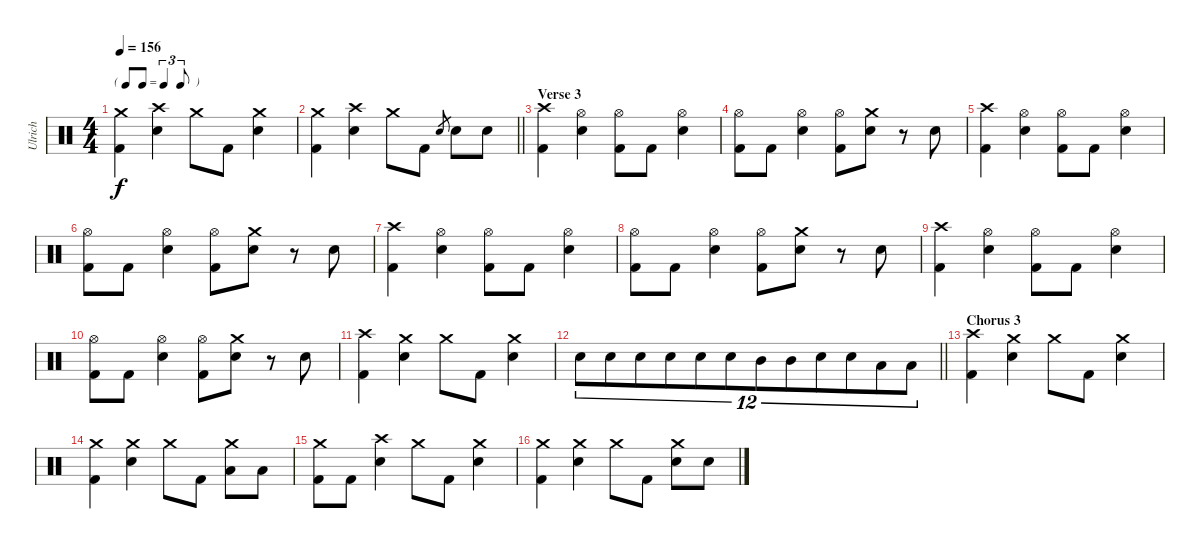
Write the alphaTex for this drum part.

\track ("Ulrich" "Ulrich") {instrument percussion}
\staff {score}
\articulation defaults
\ts (4 4)
\tf triplet8th
\tempo 156
\clef neutral
\ks c
("Crash medium (hit)" "Kick (hit) 2").4{dy f} ("Crash high (hit)" "Electric Snare (hit)").4 "Crash medium (hit)".8 "Kick (hit) 2".8 ("Crash medium (hit)" "Electric Snare (hit)").4 |
\barLineRight lightlight
("Crash medium (hit)" "Kick (hit) 2").4 ("Crash high (hit)" "Electric Snare (hit)").4 "Crash medium (hit)".8 "Kick (hit) 2".8 "Electric Snare (hit)".8{gr} "Electric Snare (hit)".8 "Electric Snare (hit)".8 |
\section ("" "Verse 3")
("Crash high (hit)" "Kick (hit) 2").4 ("Hi-Hat (open)" "Electric Snare (hit)").4 ("Hi-Hat (open)" "Kick (hit) 2").8 "Kick (hit) 2".8 ("Hi-Hat (open)" "Electric Snare (hit)").4 |
("Hi-Hat (open)" "Kick (hit) 2").8 "Kick (hit) 2".8 ("Hi-Hat (open)" "Electric Snare (hit)").4 ("Hi-Hat (open)" "Kick (hit) 2").8 ("Crash medium (hit)" "Electric Snare (hit)").8 r.8 "Electric Snare (hit)".8 |
("Crash high (hit)" "Kick (hit) 2").4 ("Hi-Hat (open)" "Electric Snare (hit)").4 ("Hi-Hat (open)" "Kick (hit) 2").8 "Kick (hit) 2".8 ("Hi-Hat (open)" "Electric Snare (hit)").4 |
("Hi-Hat (open)" "Kick (hit) 2").8 "Kick (hit) 2".8 ("Hi-Hat (open)" "Electric Snare (hit)").4 ("Hi-Hat (open)" "Kick (hit) 2").8 ("Crash medium (hit)" "Electric Snare (hit)").8 r.8 "Electric Snare (hit)".8 |
("Crash high (hit)" "Kick (hit) 2").4 ("Hi-Hat (open)" "Electric Snare (hit)").4 ("Hi-Hat (open)" "Kick (hit) 2").8 "Kick (hit) 2".8 ("Hi-Hat (open)" "Electric Snare (hit)").4 |
("Hi-Hat (open)" "Kick (hit) 2").8 "Kick (hit) 2".8 ("Hi-Hat (open)" "Electric Snare (hit)").4 ("Hi-Hat (open)" "Kick (hit) 2").8 ("Crash medium (hit)" "Electric Snare (hit)").8 r.8 "Electric Snare (hit)".8 |
("Crash high (hit)" "Kick (hit) 2").4 ("Hi-Hat (open)" "Electric Snare (hit)").4 ("Hi-Hat (open)" "Kick (hit) 2").8 "Kick (hit) 2".8 ("Hi-Hat (open)" "Electric Snare (hit)").4 |
("Hi-Hat (open)" "Kick (hit) 2").8 "Kick (hit) 2".8 ("Hi-Hat (open)" "Electric Snare (hit)").4 ("Hi-Hat (open)" "Kick (hit) 2").8 ("Crash medium (hit)" "Electric Snare (hit)").8 r.8 "Electric Snare (hit)".8 |
("Crash high (hit)" "Kick (hit) 2").4 ("Crash medium (hit)" "Electric Snare (hit)").4 "Crash medium (hit)".8 "Kick (hit) 2".8 ("Crash medium (hit)" "Electric Snare (hit)").4 |
\barLineRight lightlight "Electric Snare (hit)".8{tu (12 8)} "Electric Snare (hit)".8{tu (12 8)} "Electric Snare (hit)".8{tu (12 8)} "Electric Snare (hit)".8{tu (12 8)} "Electric Snare (hit)".8{tu (12 8)} "Electric Snare (hit)".8{tu (12 8)} "Mid Tom (hit)".8{tu (12 8)} "Mid Tom (hit)".8{tu (12 8)} "Electric Snare (hit)".8{tu (12 8)} "Electric Snare (hit)".8{tu (12 8)} "Low Tom (hit)".8{tu (12 8)} "Low Tom (hit)".8{tu (12 8)}
|
\section ("" "Chorus 3")
("Crash high (hit)" "Kick (hit) 2").4 ("Crash medium (hit)" "Electric Snare (hit)").4 "Crash medium (hit)".8 "Kick (hit) 2".8 ("Crash medium (hit)" "Electric Snare (hit)").4 |
("Crash medium (hit)" "Kick (hit) 2").4 ("Crash medium (hit)" "Electric Snare (hit)").4 "Crash medium (hit)".8 "Kick (hit) 2".8 ("Crash medium (hit)" "Low Tom (hit)").8 "Low Tom (hit)".8 |
("Crash medium (hit)" "Kick (hit) 2").8 "Kick (hit) 2".8 ("Crash high (hit)" "Electric Snare (hit)").4 "Crash medium (hit)".8 "Kick (hit) 2".8 ("Crash medium (hit)" "Electric Snare (hit)").4 |
("Crash medium (hit)" "Kick (hit) 2").4 ("Crash medium (hit)" "Electric Snare (hit)").4 "Crash medium (hit)".8 "Kick (hit) 2".8 ("Crash medium (hit)" "Electric Snare (hit)").8 "Electric Snare (hit)".8
